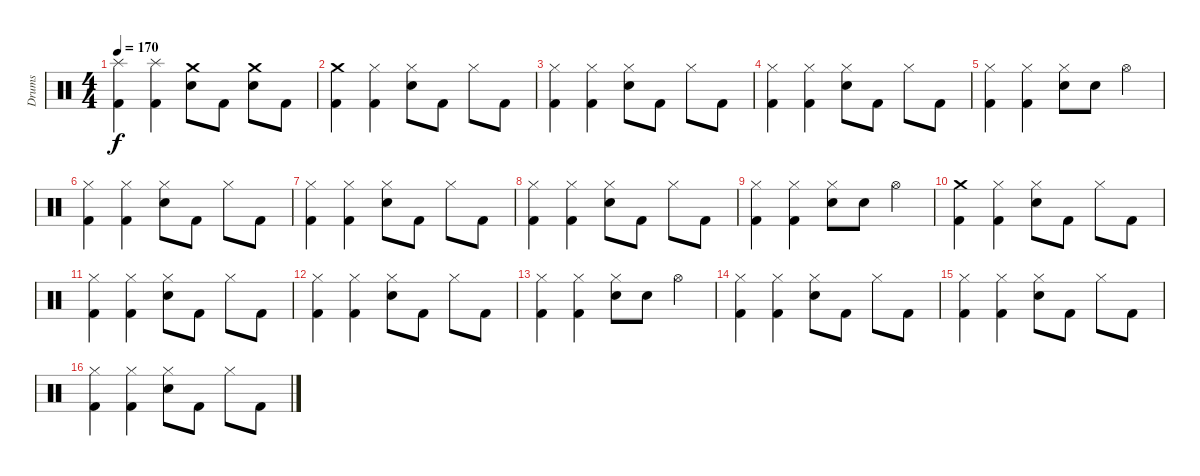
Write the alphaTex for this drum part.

\track ("Drums" "Drums") {instrument percussion}
\staff {score}
\articulation defaults
\ts (4 4)
\tempo 170
\clef neutral
\ks c
("Splash (hit)" "Kick (hit) 2").4{dy f} ("Splash (hit)" "Kick (hit) 2").4 ("Crash medium (hit)" "Electric Snare (hit)").8 "Kick (hit) 2".8 ("Crash medium (hit)" "Electric Snare (hit)").8 "Kick (hit) 2".8 |
("Crash medium (hit)" "Kick (hit) 2").4 ("Hi-Hat (closed)" "Kick (hit) 2").4 ("Hi-Hat (closed)" "Electric Snare (hit)").8 "Kick (hit) 2".8 "Hi-Hat (closed)".8 "Kick (hit) 2".8 |
("Hi-Hat (closed)" "Kick (hit) 2").4 ("Hi-Hat (closed)" "Kick (hit) 2").4 ("Hi-Hat (closed)" "Electric Snare (hit)").8 "Kick (hit) 2".8 "Hi-Hat (closed)".8 "Kick (hit) 2".8 |
("Hi-Hat (closed)" "Kick (hit) 2").4 ("Hi-Hat (closed)" "Kick (hit) 2").4 ("Hi-Hat (closed)" "Electric Snare (hit)").8 "Kick (hit) 2".8 "Hi-Hat (closed)".8 "Kick (hit) 2".8 |
("Hi-Hat (closed)" "Kick (hit) 2").4 ("Hi-Hat (closed)" "Kick (hit) 2").4 ("Hi-Hat (closed)" "Electric Snare (hit)").8 "Electric Snare (hit)".8 "Hi-Hat (open)".4 |
("Hi-Hat (closed)" "Kick (hit) 2").4 ("Hi-Hat (closed)" "Kick (hit) 2").4 ("Hi-Hat (closed)" "Electric Snare (hit)").8 "Kick (hit) 2".8 "Hi-Hat (closed)".8 "Kick (hit) 2".8 |
("Hi-Hat (closed)" "Kick (hit) 2").4 ("Hi-Hat (closed)" "Kick (hit) 2").4 ("Hi-Hat (closed)" "Electric Snare (hit)").8 "Kick (hit) 2".8 "Hi-Hat (closed)".8 "Kick (hit) 2".8 |
("Hi-Hat (closed)" "Kick (hit) 2").4 ("Hi-Hat (closed)" "Kick (hit) 2").4 ("Hi-Hat (closed)" "Electric Snare (hit)").8 "Kick (hit) 2".8 "Hi-Hat (closed)".8 "Kick (hit) 2".8 |
("Hi-Hat (closed)" "Kick (hit) 2").4 ("Hi-Hat (closed)" "Kick (hit) 2").4 ("Hi-Hat (closed)" "Electric Snare (hit)").8 "Electric Snare (hit)".8 "Hi-Hat (open)".4 |
("Crash medium (hit)" "Kick (hit) 2").4 ("Hi-Hat (closed)" "Kick (hit) 2").4 ("Hi-Hat (closed)" "Electric Snare (hit)").8 "Kick (hit) 2".8 "Hi-Hat (closed)".8 "Kick (hit) 2".8 |
("Hi-Hat (closed)" "Kick (hit) 2").4 ("Hi-Hat (closed)" "Kick (hit) 2").4 ("Hi-Hat (closed)" "Electric Snare (hit)").8 "Kick (hit) 2".8 "Hi-Hat (closed)".8 "Kick (hit) 2".8 |
("Hi-Hat (closed)" "Kick (hit) 2").4 ("Hi-Hat (closed)" "Kick (hit) 2").4 ("Hi-Hat (closed)" "Electric Snare (hit)").8 "Kick (hit) 2".8 "Hi-Hat (closed)".8 "Kick (hit) 2".8 |
("Hi-Hat (closed)" "Kick (hit) 2").4 ("Hi-Hat (closed)" "Kick (hit) 2").4 ("Hi-Hat (closed)" "Electric Snare (hit)").8 "Electric Snare (hit)".8 "Hi-Hat (open)".4 |
("Hi-Hat (closed)" "Kick (hit) 2").4 ("Hi-Hat (closed)" "Kick (hit) 2").4 ("Hi-Hat (closed)" "Electric Snare (hit)").8 "Kick (hit) 2".8 "Hi-Hat (closed)".8 "Kick (hit) 2".8 |
("Hi-Hat (closed)" "Kick (hit) 2").4 ("Hi-Hat (closed)" "Kick (hit) 2").4 ("Hi-Hat (closed)" "Electric Snare (hit)").8 "Kick (hit) 2".8 "Hi-Hat (closed)".8 "Kick (hit) 2".8 |
("Hi-Hat (closed)" "Kick (hit) 2").4 ("Hi-Hat (closed)" "Kick (hit) 2").4 ("Hi-Hat (closed)" "Electric Snare (hit)").8 "Kick (hit) 2".8 "Hi-Hat (closed)".8 "Kick (hit) 2".8
